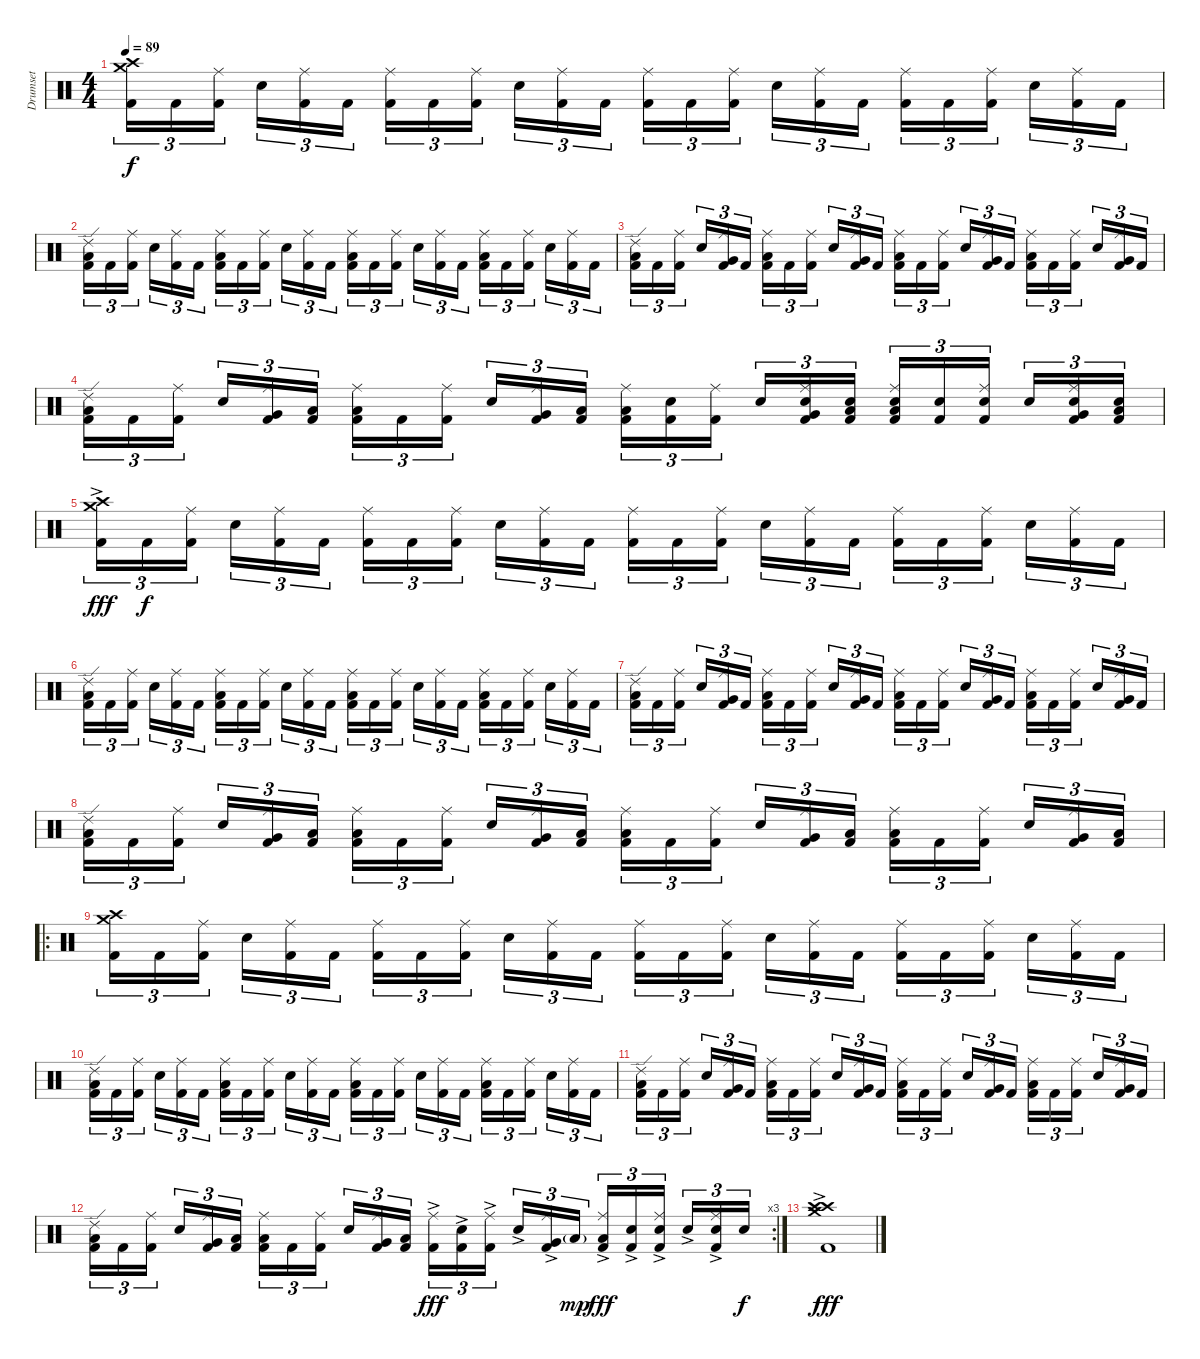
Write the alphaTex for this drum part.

\track ("Drumset" "Drumset") {instrument percussion}
\staff {score}
\articulation defaults
\ts (4 4)
\tempo 89
\clef neutral
\ks c
("Crash high (hit)" "Crash medium (hit)" "Kick (hit) 2").16{tu (3 2) dy f} "Kick (hit) 2".16{tu (3 2)} ("Ride (middle)" "Kick (hit) 2").16{tu (3 2)} "Electric Snare (hit)".16{tu (3 2)} ("Ride (middle)" "Kick (hit) 2").16{tu (3 2)} "Kick (hit) 2".16{tu (3 2)} ("Ride (middle)" "Kick (hit) 2").16{tu (3 2)} "Kick (hit) 2".16{tu (3 2)} ("Ride (middle)" "Kick (hit) 2").16{tu (3 2)} "Electric Snare (hit)".16{tu (3 2)} ("Ride (middle)" "Kick (hit) 2").16{tu (3 2)} "Kick (hit) 2".16{tu (3 2)} ("Ride (middle)" "Kick (hit) 2").16{tu (3 2)} "Kick (hit) 2".16{tu (3 2)} ("Ride (middle)" "Kick (hit) 2").16{tu (3 2)} "Electric Snare (hit)".16{tu (3 2)} ("Ride (middle)" "Kick (hit) 2").16{tu (3 2)} "Kick (hit) 2".16{tu (3 2)} ("Ride (middle)" "Kick (hit) 2").16{tu (3 2)} "Kick (hit) 2".16{tu (3 2)} ("Ride (middle)" "Kick (hit) 2").16{tu (3 2)} "Electric Snare (hit)".16{tu (3 2)} ("Ride (middle)" "Kick (hit) 2").16{tu (3 2)} "Kick (hit) 2".16{tu (3 2)} |
("Ride (edge) 2" "Low Floor Tom (hit)" "Kick (hit) 2").16{tu (3 2)} "Kick (hit) 2".16{tu (3 2)} ("Ride (middle)" "Kick (hit) 2").16{tu (3 2)} "Electric Snare (hit)".16{tu (3 2)} ("Ride (middle)" "Kick (hit) 2").16{tu (3 2)} "Kick (hit) 2".16{tu (3 2)} ("Ride (middle)" "Low Floor Tom (hit)" "Kick (hit) 2").16{tu (3 2)} "Kick (hit) 2".16{tu (3 2)} ("Ride (middle)" "Kick (hit) 2").16{tu (3 2)} "Electric Snare (hit)".16{tu (3 2)} ("Ride (middle)" "Kick (hit) 2").16{tu (3 2)} "Kick (hit) 2".16{tu (3 2)} ("Ride (middle)" "Low Floor Tom (hit)" "Kick (hit) 2").16{tu (3 2)} "Kick (hit) 2".16{tu (3 2)} ("Ride (middle)" "Kick (hit) 2").16{tu (3 2)} "Electric Snare (hit)".16{tu (3 2)} ("Ride (middle)" "Kick (hit) 2").16{tu (3 2)} "Kick (hit) 2".16{tu (3 2)} ("Ride (middle)" "Low Floor Tom (hit)" "Kick (hit) 2").16{tu (3 2)} "Kick (hit) 2".16{tu (3 2)} ("Ride (middle)" "Kick (hit) 2").16{tu (3 2)} "Electric Snare (hit)".16{tu (3 2)} ("Ride (middle)" "Kick (hit) 2").16{tu (3 2)} "Kick (hit) 2".16{tu (3 2)} |
("Ride (edge) 2" "Low Floor Tom (hit)" "Kick (hit) 2").16{tu (3 2)} "Kick (hit) 2".16{tu (3 2)} ("Ride (middle)" "Kick (hit) 2").16{tu (3 2)} "Electric Snare (hit)".16{tu (3 2)} ("Ride (middle)" "Very Low Tom (hit)" "Kick (hit) 2").16{tu (3 2)} "Kick (hit) 2".16{tu (3 2)} ("Ride (middle)" "Low Floor Tom (hit)" "Kick (hit) 2").16{tu (3 2)} "Kick (hit) 2".16{tu (3 2)} ("Ride (middle)" "Kick (hit) 2").16{tu (3 2)} "Electric Snare (hit)".16{tu (3 2)} ("Ride (middle)" "Very Low Tom (hit)" "Kick (hit) 2").16{tu (3 2)} "Kick (hit) 2".16{tu (3 2)} ("Ride (middle)" "Low Floor Tom (hit)" "Kick (hit) 2").16{tu (3 2)} "Kick (hit) 2".16{tu (3 2)} ("Ride (middle)" "Kick (hit) 2").16{tu (3 2)} "Electric Snare (hit)".16{tu (3 2)} ("Ride (middle)" "Very Low Tom (hit)" "Kick (hit) 2").16{tu (3 2)} "Kick (hit) 2".16{tu (3 2)} ("Ride (middle)" "Low Floor Tom (hit)" "Kick (hit) 2").16{tu (3 2)} "Kick (hit) 2".16{tu (3 2)} ("Ride (middle)" "Kick (hit) 2").16{tu (3 2)} "Electric Snare (hit)".16{tu (3 2)} ("Ride (middle)" "Very Low Tom (hit)" "Kick (hit) 2").16{tu (3 2)} "Kick (hit) 2".16{tu (3 2)} |
("Ride (edge) 2" "Low Floor Tom (hit)" "Kick (hit) 2").16{tu (3 2)} "Kick (hit) 2".16{tu (3 2)} ("Ride (middle)" "Kick (hit) 2").16{tu (3 2)} "Electric Snare (hit)".16{tu (3 2)} ("Ride (middle)" "Very Low Tom (hit)" "Kick (hit) 2").16{tu (3 2)} ("Low Floor Tom (hit)" "Kick (hit) 2").16{tu (3 2)} ("Ride (middle)" "Low Floor Tom (hit)" "Kick (hit) 2").16{tu (3 2)} "Kick (hit) 2".16{tu (3 2)} ("Ride (middle)" "Kick (hit) 2").16{tu (3 2)} "Electric Snare (hit)".16{tu (3 2)} ("Ride (middle)" "Very Low Tom (hit)" "Kick (hit) 2").16{tu (3 2)} ("Low Floor Tom (hit)" "Kick (hit) 2").16{tu (3 2)} ("Ride (middle)" "Low Floor Tom (hit)" "Kick (hit) 2").16{tu (3 2)} ("Electric Snare (hit)" "Kick (hit) 2").16{tu (3 2)} ("Ride (middle)" "Kick (hit) 2").16{tu (3 2)} "Electric Snare (hit)".16{tu (3 2)} ("Ride (middle)" "Very Low Tom (hit)" "Electric Snare (hit)" "Kick (hit) 2").16{tu (3 2)} ("Snare (hit) 2" "Low Floor Tom (hit)" "Kick (hit) 2").16{tu (3 2)} ("Ride (middle)" "Electric Snare (hit)" "Low Floor Tom (hit)" "Kick (hit) 2").16{tu (3 2)} ("Electric Snare (hit)" "Kick (hit) 2").16{tu (3 2)} ("Ride (middle)" "Electric Snare (hit)" "Kick (hit) 2").16{tu (3 2)} "Electric Snare (hit)".16{tu (3 2)} ("Ride (middle)" "Very Low Tom (hit)" "Electric Snare (hit)" "Kick (hit) 2").16{tu (3 2)} ("Electric Snare (hit)" "Low Floor Tom (hit)" "Kick (hit) 2").16{tu (3 2)} |
("Crash high (hit)"{ac} "Crash medium (hit)" "Kick (hit) 2").16{tu (3 2) dy fff} "Kick (hit) 2".16{tu (3 2) dy f} ("Ride (middle)" "Kick (hit) 2").16{tu (3 2)} "Electric Snare (hit)".16{tu (3 2)} ("Ride (middle)" "Kick (hit) 2").16{tu (3 2)} "Kick (hit) 2".16{tu (3 2)} ("Ride (middle)" "Kick (hit) 2").16{tu (3 2)} "Kick (hit) 2".16{tu (3 2)} ("Ride (middle)" "Kick (hit) 2").16{tu (3 2)} "Electric Snare (hit)".16{tu (3 2)} ("Ride (middle)" "Kick (hit) 2").16{tu (3 2)} "Kick (hit) 2".16{tu (3 2)} ("Ride (middle)" "Kick (hit) 2").16{tu (3 2)} "Kick (hit) 2".16{tu (3 2)} ("Ride (middle)" "Kick (hit) 2").16{tu (3 2)} "Electric Snare (hit)".16{tu (3 2)} ("Ride (middle)" "Kick (hit) 2").16{tu (3 2)} "Kick (hit) 2".16{tu (3 2)} ("Ride (middle)" "Kick (hit) 2").16{tu (3 2)} "Kick (hit) 2".16{tu (3 2)} ("Ride (middle)" "Kick (hit) 2").16{tu (3 2)} "Electric Snare (hit)".16{tu (3 2)} ("Ride (middle)" "Kick (hit) 2").16{tu (3 2)} "Kick (hit) 2".16{tu (3 2)} |
("Ride (edge) 2" "Low Floor Tom (hit)" "Kick (hit) 2").16{tu (3 2)} "Kick (hit) 2".16{tu (3 2)} ("Ride (middle)" "Kick (hit) 2").16{tu (3 2)} "Electric Snare (hit)".16{tu (3 2)} ("Ride (middle)" "Kick (hit) 2").16{tu (3 2)} "Kick (hit) 2".16{tu (3 2)} ("Ride (middle)" "Low Floor Tom (hit)" "Kick (hit) 2").16{tu (3 2)} "Kick (hit) 2".16{tu (3 2)} ("Ride (middle)" "Kick (hit) 2").16{tu (3 2)} "Electric Snare (hit)".16{tu (3 2)} ("Ride (middle)" "Kick (hit) 2").16{tu (3 2)} "Kick (hit) 2".16{tu (3 2)} ("Ride (middle)" "Low Floor Tom (hit)" "Kick (hit) 2").16{tu (3 2)} "Kick (hit) 2".16{tu (3 2)} ("Ride (middle)" "Kick (hit) 2").16{tu (3 2)} "Electric Snare (hit)".16{tu (3 2)} ("Ride (middle)" "Kick (hit) 2").16{tu (3 2)} "Kick (hit) 2".16{tu (3 2)} ("Ride (middle)" "Low Floor Tom (hit)" "Kick (hit) 2").16{tu (3 2)} "Kick (hit) 2".16{tu (3 2)} ("Ride (middle)" "Kick (hit) 2").16{tu (3 2)} "Electric Snare (hit)".16{tu (3 2)} ("Ride (middle)" "Kick (hit) 2").16{tu (3 2)} "Kick (hit) 2".16{tu (3 2)} |
("Ride (edge) 2" "Low Floor Tom (hit)" "Kick (hit) 2").16{tu (3 2)} "Kick (hit) 2".16{tu (3 2)} ("Ride (middle)" "Kick (hit) 2").16{tu (3 2)} "Electric Snare (hit)".16{tu (3 2)} ("Ride (middle)" "Very Low Tom (hit)" "Kick (hit) 2").16{tu (3 2)} "Kick (hit) 2".16{tu (3 2)} ("Ride (middle)" "Low Floor Tom (hit)" "Kick (hit) 2").16{tu (3 2)} "Kick (hit) 2".16{tu (3 2)} ("Ride (middle)" "Kick (hit) 2").16{tu (3 2)} "Electric Snare (hit)".16{tu (3 2)} ("Ride (middle)" "Very Low Tom (hit)" "Kick (hit) 2").16{tu (3 2)} "Kick (hit) 2".16{tu (3 2)} ("Ride (middle)" "Low Floor Tom (hit)" "Kick (hit) 2").16{tu (3 2)} "Kick (hit) 2".16{tu (3 2)} ("Ride (middle)" "Kick (hit) 2").16{tu (3 2)} "Electric Snare (hit)".16{tu (3 2)} ("Ride (middle)" "Very Low Tom (hit)" "Kick (hit) 2").16{tu (3 2)} "Kick (hit) 2".16{tu (3 2)} ("Ride (middle)" "Low Floor Tom (hit)" "Kick (hit) 2").16{tu (3 2)} "Kick (hit) 2".16{tu (3 2)} ("Ride (middle)" "Kick (hit) 2").16{tu (3 2)} "Electric Snare (hit)".16{tu (3 2)} ("Ride (middle)" "Very Low Tom (hit)" "Kick (hit) 2").16{tu (3 2)} "Kick (hit) 2".16{tu (3 2)} |
("Ride (edge) 2" "Low Floor Tom (hit)" "Kick (hit) 2").16{tu (3 2)} "Kick (hit) 2".16{tu (3 2)} ("Ride (middle)" "Kick (hit) 2").16{tu (3 2)} "Electric Snare (hit)".16{tu (3 2)} ("Ride (middle)" "Very Low Tom (hit)" "Kick (hit) 2").16{tu (3 2)} ("Low Floor Tom (hit)" "Kick (hit) 2").16{tu (3 2)} ("Ride (middle)" "Low Floor Tom (hit)" "Kick (hit) 2").16{tu (3 2)} "Kick (hit) 2".16{tu (3 2)} ("Ride (middle)" "Kick (hit) 2").16{tu (3 2)} "Electric Snare (hit)".16{tu (3 2)} ("Ride (middle)" "Very Low Tom (hit)" "Kick (hit) 2").16{tu (3 2)} ("Low Floor Tom (hit)" "Kick (hit) 2").16{tu (3 2)} ("Ride (middle)" "Low Floor Tom (hit)" "Kick (hit) 2").16{tu (3 2)} "Kick (hit) 2".16{tu (3 2)} ("Ride (middle)" "Kick (hit) 2").16{tu (3 2)} "Electric Snare (hit)".16{tu (3 2)} ("Ride (middle)" "Very Low Tom (hit)" "Kick (hit) 2").16{tu (3 2)} ("Low Floor Tom (hit)" "Kick (hit) 2").16{tu (3 2)} ("Ride (middle)" "Low Floor Tom (hit)" "Kick (hit) 2").16{tu (3 2)} "Kick (hit) 2".16{tu (3 2)} ("Ride (middle)" "Kick (hit) 2").16{tu (3 2)} "Electric Snare (hit)".16{tu (3 2)} ("Ride (middle)" "Very Low Tom (hit)" "Kick (hit) 2").16{tu (3 2)} ("Low Floor Tom (hit)" "Kick (hit) 2").16{tu (3 2)} |
\ro
("Crash high (hit)" "Crash medium (hit)" "Kick (hit) 2").16{tu (3 2)} "Kick (hit) 2".16{tu (3 2)} ("Ride (middle)" "Kick (hit) 2").16{tu (3 2)} "Electric Snare (hit)".16{tu (3 2)} ("Ride (middle)" "Kick (hit) 2").16{tu (3 2)} "Kick (hit) 2".16{tu (3 2)} ("Ride (middle)" "Kick (hit) 2").16{tu (3 2)} "Kick (hit) 2".16{tu (3 2)} ("Ride (middle)" "Kick (hit) 2").16{tu (3 2)} "Electric Snare (hit)".16{tu (3 2)} ("Ride (middle)" "Kick (hit) 2").16{tu (3 2)} "Kick (hit) 2".16{tu (3 2)} ("Ride (middle)" "Kick (hit) 2").16{tu (3 2)} "Kick (hit) 2".16{tu (3 2)} ("Ride (middle)" "Kick (hit) 2").16{tu (3 2)} "Electric Snare (hit)".16{tu (3 2)} ("Ride (middle)" "Kick (hit) 2").16{tu (3 2)} "Kick (hit) 2".16{tu (3 2)} ("Ride (middle)" "Kick (hit) 2").16{tu (3 2)} "Kick (hit) 2".16{tu (3 2)} ("Ride (middle)" "Kick (hit) 2").16{tu (3 2)} "Electric Snare (hit)".16{tu (3 2)} ("Ride (middle)" "Kick (hit) 2").16{tu (3 2)} "Kick (hit) 2".16{tu (3 2)} |
("Ride (edge) 2" "Low Floor Tom (hit)" "Kick (hit) 2").16{tu (3 2)} "Kick (hit) 2".16{tu (3 2)} ("Ride (middle)" "Kick (hit) 2").16{tu (3 2)} "Electric Snare (hit)".16{tu (3 2)} ("Ride (middle)" "Kick (hit) 2").16{tu (3 2)} "Kick (hit) 2".16{tu (3 2)} ("Ride (middle)" "Low Floor Tom (hit)" "Kick (hit) 2").16{tu (3 2)} "Kick (hit) 2".16{tu (3 2)} ("Ride (middle)" "Kick (hit) 2").16{tu (3 2)} "Electric Snare (hit)".16{tu (3 2)} ("Ride (middle)" "Kick (hit) 2").16{tu (3 2)} "Kick (hit) 2".16{tu (3 2)} ("Ride (middle)" "Low Floor Tom (hit)" "Kick (hit) 2").16{tu (3 2)} "Kick (hit) 2".16{tu (3 2)} ("Ride (middle)" "Kick (hit) 2").16{tu (3 2)} "Electric Snare (hit)".16{tu (3 2)} ("Ride (middle)" "Kick (hit) 2").16{tu (3 2)} "Kick (hit) 2".16{tu (3 2)} ("Ride (middle)" "Low Floor Tom (hit)" "Kick (hit) 2").16{tu (3 2)} "Kick (hit) 2".16{tu (3 2)} ("Ride (middle)" "Kick (hit) 2").16{tu (3 2)} "Electric Snare (hit)".16{tu (3 2)} ("Ride (middle)" "Kick (hit) 2").16{tu (3 2)} "Kick (hit) 2".16{tu (3 2)} |
("Ride (edge) 2" "Low Floor Tom (hit)" "Kick (hit) 2").16{tu (3 2)} "Kick (hit) 2".16{tu (3 2)} ("Ride (middle)" "Kick (hit) 2").16{tu (3 2)} "Electric Snare (hit)".16{tu (3 2)} ("Ride (middle)" "Very Low Tom (hit)" "Kick (hit) 2").16{tu (3 2)} "Kick (hit) 2".16{tu (3 2)} ("Ride (middle)" "Low Floor Tom (hit)" "Kick (hit) 2").16{tu (3 2)} "Kick (hit) 2".16{tu (3 2)} ("Ride (middle)" "Kick (hit) 2").16{tu (3 2)} "Electric Snare (hit)".16{tu (3 2)} ("Ride (middle)" "Very Low Tom (hit)" "Kick (hit) 2").16{tu (3 2)} "Kick (hit) 2".16{tu (3 2)} ("Ride (middle)" "Low Floor Tom (hit)" "Kick (hit) 2").16{tu (3 2)} "Kick (hit) 2".16{tu (3 2)} ("Ride (middle)" "Kick (hit) 2").16{tu (3 2)} "Electric Snare (hit)".16{tu (3 2)} ("Ride (middle)" "Very Low Tom (hit)" "Kick (hit) 2").16{tu (3 2)} "Kick (hit) 2".16{tu (3 2)} ("Ride (middle)" "Low Floor Tom (hit)" "Kick (hit) 2").16{tu (3 2)} "Kick (hit) 2".16{tu (3 2)} ("Ride (middle)" "Kick (hit) 2").16{tu (3 2)} "Electric Snare (hit)".16{tu (3 2)} ("Ride (middle)" "Very Low Tom (hit)" "Kick (hit) 2").16{tu (3 2)} "Kick (hit) 2".16{tu (3 2)} |
\rc 3
("Ride (edge) 2" "Low Floor Tom (hit)" "Kick (hit) 2").16{tu (3 2)} "Kick (hit) 2".16{tu (3 2)} ("Ride (middle)" "Kick (hit) 2").16{tu (3 2)} "Electric Snare (hit)".16{tu (3 2)} ("Ride (middle)" "Very Low Tom (hit)" "Kick (hit) 2").16{tu (3 2)} ("Low Floor Tom (hit)" "Kick (hit) 2").16{tu (3 2)} ("Ride (middle)" "Low Floor Tom (hit)" "Kick (hit) 2").16{tu (3 2)} "Kick (hit) 2".16{tu (3 2)} ("Ride (middle)" "Kick (hit) 2").16{tu (3 2)} "Electric Snare (hit)".16{tu (3 2)} ("Ride (middle)" "Very Low Tom (hit)" "Kick (hit) 2").16{tu (3 2)} ("Low Floor Tom (hit)" "Kick (hit) 2").16{tu (3 2)} ("Ride (middle)" "Kick (hit) 2"{ac}).16{tu (3 2) dy fff} ("Electric Snare (hit)" "Kick (hit) 2"{ac}).16{tu (3 2)} ("Ride (middle)" "Kick (hit) 2"{ac}).16{tu (3 2)} "Electric Snare (hit)"{ac}.16{tu (3 2)} ("Ride (middle)" "Very Low Tom (hit)" "Kick (hit) 2"{ac}).16{tu (3 2)} "Low Floor Tom (hit)"{g}.16{tu (3 2) dy mp} ("Ride (middle)" "Low Floor Tom (hit)" "Kick (hit) 2"{ac}).16{tu (3 2) dy fff} ("Snare (hit) 2" "Kick (hit) 2"{ac}).16{tu (3 2)} ("Ride (middle)" "Electric Snare (hit)" "Kick (hit) 2"{ac}).16{tu (3 2)} "Electric Snare (hit)"{ac}.16{tu (3 2)} ("Ride (middle)" "Electric Snare (hit)" "Kick (hit) 2"{ac}).16{tu (3 2)} "Electric Snare (hit)".16{tu (3 2) dy f} |
("Crash high (hit)"{ac} "Crash medium (hit)"{ac} "Crash high (hit)" "Kick (hit) 2"{ac}).1{dy fff}
